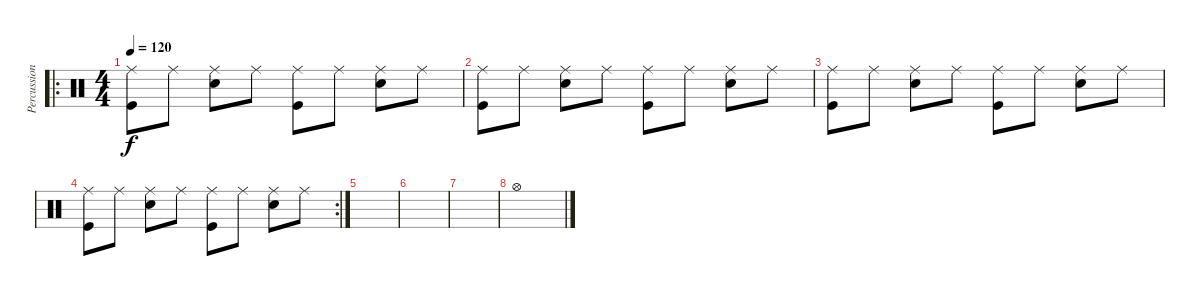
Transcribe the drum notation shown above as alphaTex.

\track ("Percussion" "Percussion") {instrument percussion}
\staff {score}
\articulation defaults
\ro
\ts (4 4)
\tempo 120
\clef neutral
\ks c
("Ride (middle)" "Kick (hit)").8{dy f} "Ride (middle)".8 ("Ride (middle)" "Snare (hit) 2").8 "Ride (middle)".8 ("Ride (middle)" "Kick (hit)").8 "Ride (middle)".8 ("Ride (middle)" "Snare (hit) 2").8 "Ride (middle)".8 |
("Ride (middle)" "Kick (hit)").8 "Ride (middle)".8 ("Ride (middle)" "Snare (hit) 2").8 "Ride (middle)".8 ("Ride (middle)" "Kick (hit)").8 "Ride (middle)".8 ("Ride (middle)" "Snare (hit) 2").8 "Ride (middle)".8 |
("Ride (middle)" "Kick (hit)").8 "Ride (middle)".8 ("Ride (middle)" "Snare (hit) 2").8 "Ride (middle)".8 ("Ride (middle)" "Kick (hit)").8 "Ride (middle)".8 ("Ride (middle)" "Snare (hit) 2").8 "Ride (middle)".8 |
\rc 2
("Ride (middle)" "Kick (hit)").8 "Ride (middle)".8 ("Ride (middle)" "Snare (hit) 2").8 "Ride (middle)".8 ("Ride (middle)" "Kick (hit)").8 "Ride (middle)".8 ("Ride (middle)" "Snare (hit) 2").8 "Ride (middle)".8 |
|
|
|
"Hi-Hat (open)".1
